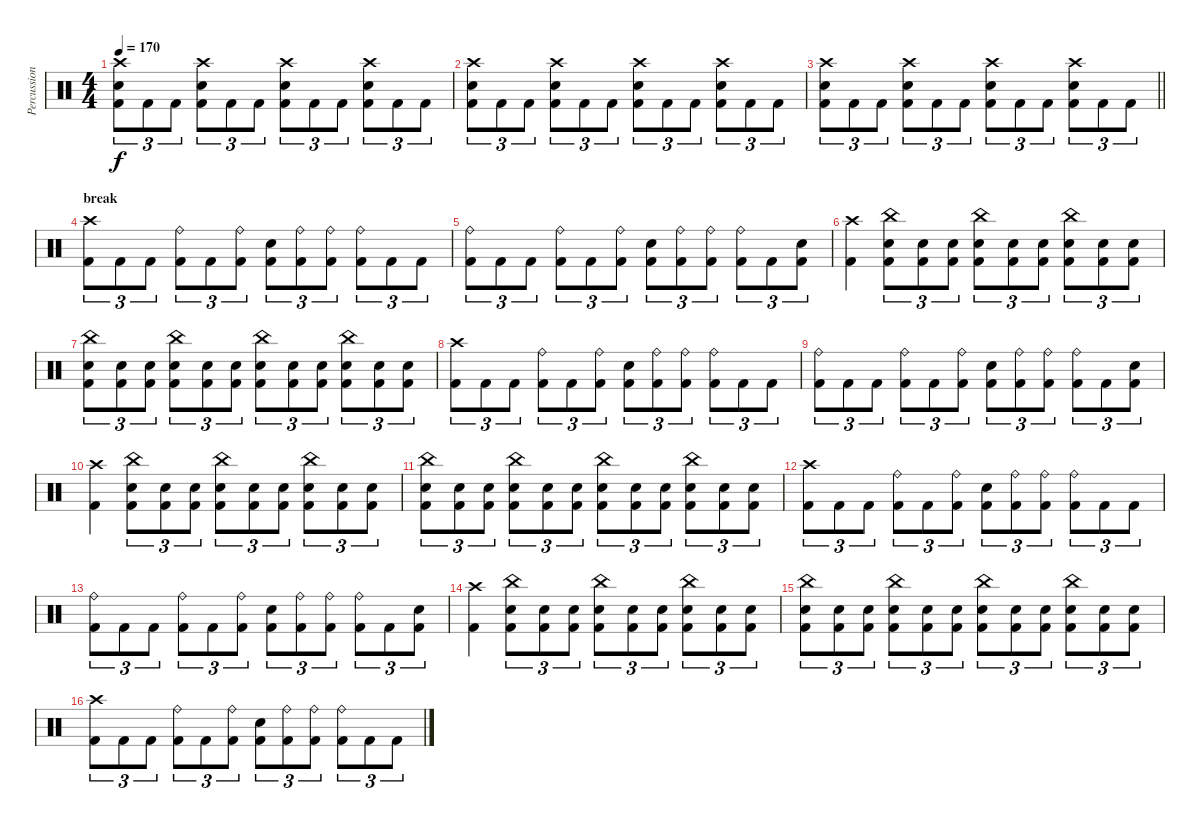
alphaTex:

\track ("Percussion" "Percussion") {instrument percussion}
\staff {score}
\articulation defaults
\ts (4 4)
\tempo 170
\clef neutral
\ks c
("Crash high (hit)" "Electric Snare (hit)" "Kick (hit) 2").8{tu (3 2) dy f} "Kick (hit) 2".8{tu (3 2)} "Kick (hit) 2".8{tu (3 2)} ("Crash high (hit)" "Electric Snare (hit)" "Kick (hit) 2").8{tu (3 2)} "Kick (hit) 2".8{tu (3 2)} "Kick (hit) 2".8{tu (3 2)} ("Crash high (hit)" "Electric Snare (hit)" "Kick (hit) 2").8{tu (3 2)} "Kick (hit) 2".8{tu (3 2)} "Kick (hit) 2".8{tu (3 2)} ("Crash high (hit)" "Electric Snare (hit)" "Kick (hit) 2").8{tu (3 2)} "Kick (hit) 2".8{tu (3 2)} "Kick (hit) 2".8{tu (3 2)} |
("Crash high (hit)" "Electric Snare (hit)" "Kick (hit) 2").8{tu (3 2)} "Kick (hit) 2".8{tu (3 2)} "Kick (hit) 2".8{tu (3 2)} ("Crash high (hit)" "Electric Snare (hit)" "Kick (hit) 2").8{tu (3 2)} "Kick (hit) 2".8{tu (3 2)} "Kick (hit) 2".8{tu (3 2)} ("Crash high (hit)" "Electric Snare (hit)" "Kick (hit) 2").8{tu (3 2)} "Kick (hit) 2".8{tu (3 2)} "Kick (hit) 2".8{tu (3 2)} ("Crash high (hit)" "Electric Snare (hit)" "Kick (hit) 2").8{tu (3 2)} "Kick (hit) 2".8{tu (3 2)} "Kick (hit) 2".8{tu (3 2)} |
\barLineRight lightlight
("Crash high (hit)" "Electric Snare (hit)" "Kick (hit) 2").8{tu (3 2)} "Kick (hit) 2".8{tu (3 2)} "Kick (hit) 2".8{tu (3 2)} ("Crash high (hit)" "Electric Snare (hit)" "Kick (hit) 2").8{tu (3 2)} "Kick (hit) 2".8{tu (3 2)} "Kick (hit) 2".8{tu (3 2)} ("Crash high (hit)" "Electric Snare (hit)" "Kick (hit) 2").8{tu (3 2)} "Kick (hit) 2".8{tu (3 2)} "Kick (hit) 2".8{tu (3 2)} ("Crash high (hit)" "Electric Snare (hit)" "Kick (hit) 2").8{tu (3 2)} "Kick (hit) 2".8{tu (3 2)} "Kick (hit) 2".8{tu (3 2)} |
\section ("" "break")
("Crash high (hit)" "Kick (hit) 2").8{tu (3 2)} "Kick (hit) 2".8{tu (3 2)} "Kick (hit) 2".8{tu (3 2)} ("Ride (bell)" "Kick (hit) 2").8{tu (3 2)} "Kick (hit) 2".8{tu (3 2)} ("Ride (bell)" "Kick (hit) 2").8{tu (3 2)} ("Electric Snare (hit)" "Kick (hit) 2").8{tu (3 2)} ("Ride (bell)" "Kick (hit) 2").8{tu (3 2)} ("Ride (bell)" "Kick (hit) 2").8{tu (3 2)} ("Ride (bell)" "Kick (hit) 2").8{tu (3 2)} "Kick (hit) 2".8{tu (3 2)} "Kick (hit) 2".8{tu (3 2)} |
("Ride (bell)" "Kick (hit) 2").8{tu (3 2)} "Kick (hit) 2".8{tu (3 2)} "Kick (hit) 2".8{tu (3 2)} ("Ride (bell)" "Kick (hit) 2").8{tu (3 2)} "Kick (hit) 2".8{tu (3 2)} ("Ride (bell)" "Kick (hit) 2").8{tu (3 2)} ("Electric Snare (hit)" "Kick (hit) 2").8{tu (3 2)} ("Ride (bell)" "Kick (hit) 2").8{tu (3 2)} ("Ride (bell)" "Kick (hit) 2").8{tu (3 2)} ("Ride (bell)" "Kick (hit) 2").8{tu (3 2)} "Kick (hit) 2".8{tu (3 2)} ("Electric Snare (hit)" "Kick (hit) 2").8{tu (3 2)} |
("Crash high (hit)" "Kick (hit) 2").4 ("China (hit)" "Electric Snare (hit)" "Kick (hit) 2").8{tu (3 2)} ("Electric Snare (hit)" "Kick (hit) 2").8{tu (3 2)} ("Electric Snare (hit)" "Kick (hit) 2").8{tu (3 2)} ("China (hit)" "Electric Snare (hit)" "Kick (hit) 2").8{tu (3 2)} ("Electric Snare (hit)" "Kick (hit) 2").8{tu (3 2)} ("Electric Snare (hit)" "Kick (hit) 2").8{tu (3 2)} ("China (hit)" "Electric Snare (hit)" "Kick (hit) 2").8{tu (3 2)} ("Electric Snare (hit)" "Kick (hit) 2").8{tu (3 2)} ("Electric Snare (hit)" "Kick (hit) 2").8{tu (3 2)} |
("China (hit)" "Electric Snare (hit)" "Kick (hit) 2").8{tu (3 2)} ("Electric Snare (hit)" "Kick (hit) 2").8{tu (3 2)} ("Electric Snare (hit)" "Kick (hit) 2").8{tu (3 2)} ("China (hit)" "Electric Snare (hit)" "Kick (hit) 2").8{tu (3 2)} ("Electric Snare (hit)" "Kick (hit) 2").8{tu (3 2)} ("Electric Snare (hit)" "Kick (hit) 2").8{tu (3 2)} ("China (hit)" "Electric Snare (hit)" "Kick (hit) 2").8{tu (3 2)} ("Electric Snare (hit)" "Kick (hit) 2").8{tu (3 2)} ("Electric Snare (hit)" "Kick (hit) 2").8{tu (3 2)} ("China (hit)" "Electric Snare (hit)" "Kick (hit) 2").8{tu (3 2)} ("Electric Snare (hit)" "Kick (hit) 2").8{tu (3 2)} ("Electric Snare (hit)" "Kick (hit) 2").8{tu (3 2)} |
("Crash high (hit)" "Kick (hit) 2").8{tu (3 2)} "Kick (hit) 2".8{tu (3 2)} "Kick (hit) 2".8{tu (3 2)} ("Ride (bell)" "Kick (hit) 2").8{tu (3 2)} "Kick (hit) 2".8{tu (3 2)} ("Ride (bell)" "Kick (hit) 2").8{tu (3 2)} ("Electric Snare (hit)" "Kick (hit) 2").8{tu (3 2)} ("Ride (bell)" "Kick (hit) 2").8{tu (3 2)} ("Ride (bell)" "Kick (hit) 2").8{tu (3 2)} ("Ride (bell)" "Kick (hit) 2").8{tu (3 2)} "Kick (hit) 2".8{tu (3 2)} "Kick (hit) 2".8{tu (3 2)} |
("Ride (bell)" "Kick (hit) 2").8{tu (3 2)} "Kick (hit) 2".8{tu (3 2)} "Kick (hit) 2".8{tu (3 2)} ("Ride (bell)" "Kick (hit) 2").8{tu (3 2)} "Kick (hit) 2".8{tu (3 2)} ("Ride (bell)" "Kick (hit) 2").8{tu (3 2)} ("Electric Snare (hit)" "Kick (hit) 2").8{tu (3 2)} ("Ride (bell)" "Kick (hit) 2").8{tu (3 2)} ("Ride (bell)" "Kick (hit) 2").8{tu (3 2)} ("Ride (bell)" "Kick (hit) 2").8{tu (3 2)} "Kick (hit) 2".8{tu (3 2)} ("Electric Snare (hit)" "Kick (hit) 2").8{tu (3 2)} |
("Crash high (hit)" "Kick (hit) 2").4 ("China (hit)" "Electric Snare (hit)" "Kick (hit) 2").8{tu (3 2)} ("Electric Snare (hit)" "Kick (hit) 2").8{tu (3 2)} ("Electric Snare (hit)" "Kick (hit) 2").8{tu (3 2)} ("China (hit)" "Electric Snare (hit)" "Kick (hit) 2").8{tu (3 2)} ("Electric Snare (hit)" "Kick (hit) 2").8{tu (3 2)} ("Electric Snare (hit)" "Kick (hit) 2").8{tu (3 2)} ("China (hit)" "Electric Snare (hit)" "Kick (hit) 2").8{tu (3 2)} ("Electric Snare (hit)" "Kick (hit) 2").8{tu (3 2)} ("Electric Snare (hit)" "Kick (hit) 2").8{tu (3 2)} |
("China (hit)" "Electric Snare (hit)" "Kick (hit) 2").8{tu (3 2)} ("Electric Snare (hit)" "Kick (hit) 2").8{tu (3 2)} ("Electric Snare (hit)" "Kick (hit) 2").8{tu (3 2)} ("China (hit)" "Electric Snare (hit)" "Kick (hit) 2").8{tu (3 2)} ("Electric Snare (hit)" "Kick (hit) 2").8{tu (3 2)} ("Electric Snare (hit)" "Kick (hit) 2").8{tu (3 2)} ("China (hit)" "Electric Snare (hit)" "Kick (hit) 2").8{tu (3 2)} ("Electric Snare (hit)" "Kick (hit) 2").8{tu (3 2)} ("Electric Snare (hit)" "Kick (hit) 2").8{tu (3 2)} ("China (hit)" "Electric Snare (hit)" "Kick (hit) 2").8{tu (3 2)} ("Electric Snare (hit)" "Kick (hit) 2").8{tu (3 2)} ("Electric Snare (hit)" "Kick (hit) 2").8{tu (3 2)} |
("Crash high (hit)" "Kick (hit) 2").8{tu (3 2)} "Kick (hit) 2".8{tu (3 2)} "Kick (hit) 2".8{tu (3 2)} ("Ride (bell)" "Kick (hit) 2").8{tu (3 2)} "Kick (hit) 2".8{tu (3 2)} ("Ride (bell)" "Kick (hit) 2").8{tu (3 2)} ("Electric Snare (hit)" "Kick (hit) 2").8{tu (3 2)} ("Ride (bell)" "Kick (hit) 2").8{tu (3 2)} ("Ride (bell)" "Kick (hit) 2").8{tu (3 2)} ("Ride (bell)" "Kick (hit) 2").8{tu (3 2)} "Kick (hit) 2".8{tu (3 2)} "Kick (hit) 2".8{tu (3 2)} |
("Ride (bell)" "Kick (hit) 2").8{tu (3 2)} "Kick (hit) 2".8{tu (3 2)} "Kick (hit) 2".8{tu (3 2)} ("Ride (bell)" "Kick (hit) 2").8{tu (3 2)} "Kick (hit) 2".8{tu (3 2)} ("Ride (bell)" "Kick (hit) 2").8{tu (3 2)} ("Electric Snare (hit)" "Kick (hit) 2").8{tu (3 2)} ("Ride (bell)" "Kick (hit) 2").8{tu (3 2)} ("Ride (bell)" "Kick (hit) 2").8{tu (3 2)} ("Ride (bell)" "Kick (hit) 2").8{tu (3 2)} "Kick (hit) 2".8{tu (3 2)} ("Electric Snare (hit)" "Kick (hit) 2").8{tu (3 2)} |
("Crash high (hit)" "Kick (hit) 2").4 ("China (hit)" "Electric Snare (hit)" "Kick (hit) 2").8{tu (3 2)} ("Electric Snare (hit)" "Kick (hit) 2").8{tu (3 2)} ("Electric Snare (hit)" "Kick (hit) 2").8{tu (3 2)} ("China (hit)" "Electric Snare (hit)" "Kick (hit) 2").8{tu (3 2)} ("Electric Snare (hit)" "Kick (hit) 2").8{tu (3 2)} ("Electric Snare (hit)" "Kick (hit) 2").8{tu (3 2)} ("China (hit)" "Electric Snare (hit)" "Kick (hit) 2").8{tu (3 2)} ("Electric Snare (hit)" "Kick (hit) 2").8{tu (3 2)} ("Electric Snare (hit)" "Kick (hit) 2").8{tu (3 2)} |
("China (hit)" "Electric Snare (hit)" "Kick (hit) 2").8{tu (3 2)} ("Electric Snare (hit)" "Kick (hit) 2").8{tu (3 2)} ("Electric Snare (hit)" "Kick (hit) 2").8{tu (3 2)} ("China (hit)" "Electric Snare (hit)" "Kick (hit) 2").8{tu (3 2)} ("Electric Snare (hit)" "Kick (hit) 2").8{tu (3 2)} ("Electric Snare (hit)" "Kick (hit) 2").8{tu (3 2)} ("China (hit)" "Electric Snare (hit)" "Kick (hit) 2").8{tu (3 2)} ("Electric Snare (hit)" "Kick (hit) 2").8{tu (3 2)} ("Electric Snare (hit)" "Kick (hit) 2").8{tu (3 2)} ("China (hit)" "Electric Snare (hit)" "Kick (hit) 2").8{tu (3 2)} ("Electric Snare (hit)" "Kick (hit) 2").8{tu (3 2)} ("Electric Snare (hit)" "Kick (hit) 2").8{tu (3 2)} |
("Crash high (hit)" "Kick (hit) 2").8{tu (3 2)} "Kick (hit) 2".8{tu (3 2)} "Kick (hit) 2".8{tu (3 2)} ("Ride (bell)" "Kick (hit) 2").8{tu (3 2)} "Kick (hit) 2".8{tu (3 2)} ("Ride (bell)" "Kick (hit) 2").8{tu (3 2)} ("Electric Snare (hit)" "Kick (hit) 2").8{tu (3 2)} ("Ride (bell)" "Kick (hit) 2").8{tu (3 2)} ("Ride (bell)" "Kick (hit) 2").8{tu (3 2)} ("Ride (bell)" "Kick (hit) 2").8{tu (3 2)} "Kick (hit) 2".8{tu (3 2)} "Kick (hit) 2".8{tu (3 2)}
